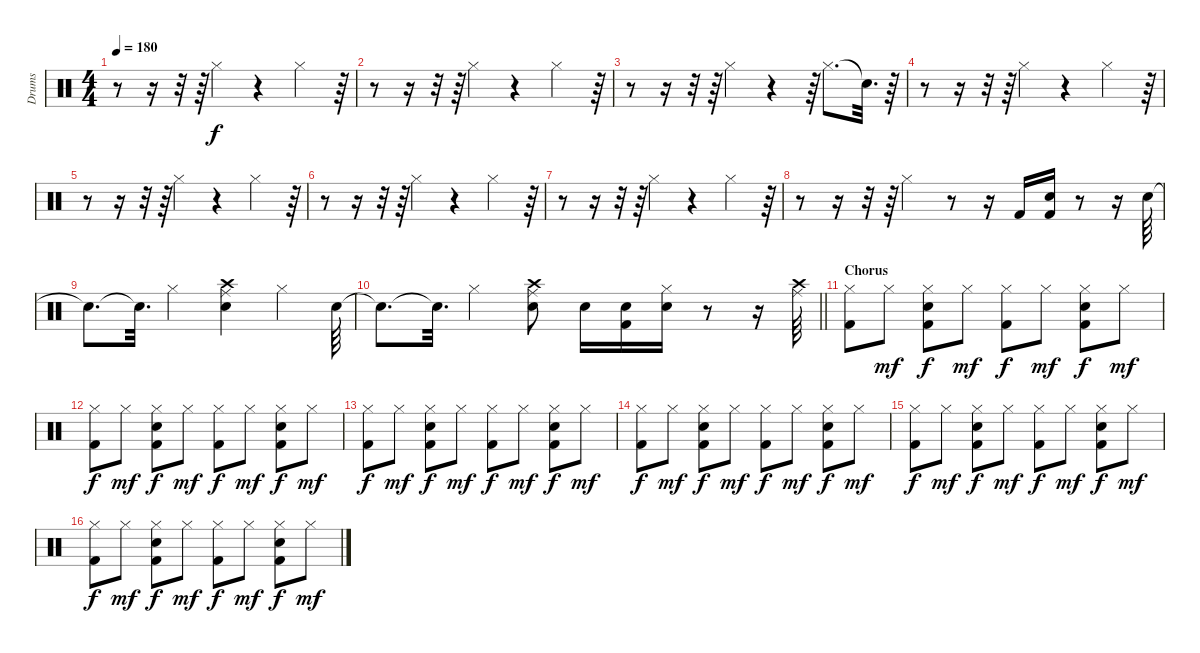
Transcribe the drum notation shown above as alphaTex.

\track ("Drums" "Drums") {instrument percussion}
\staff {score}
\articulation defaults
\ts (4 4)
\tempo 180
\clef neutral
\ks c
r.8{dy f} r.16 r.32 r.64 "Hi-Hat (closed)".4 r.4 "Hi-Hat (closed)".4 r.64 |
r.8 r.16 r.32 r.64 "Hi-Hat (closed)".4 r.4 "Hi-Hat (closed)".4 r.64 |
r.8 r.16 r.32 r.64 "Hi-Hat (closed)".4 r.4 r.64 "Hi-Hat (closed)".8{d} "Snare (hit)"{t}.32{d} r.64 |
r.8 r.16 r.32 r.64 "Hi-Hat (closed)".4 r.4 "Hi-Hat (closed)".4 r.64 |
r.8 r.16 r.32 r.64 "Hi-Hat (closed)".4 r.4 "Hi-Hat (closed)".4 r.64 |
r.8 r.16 r.32 r.64 "Hi-Hat (closed)".4 r.4 "Hi-Hat (closed)".4 r.64 |
r.8 r.16 r.32 r.64 "Hi-Hat (closed)".4 r.4 "Hi-Hat (closed)".4 r.64 |
r.8 r.16 r.32 r.64 "Hi-Hat (closed)".4 r.8 r.16 "Kick (hit) 2".16 ("Snare (hit) 2" "Kick (hit) 2").16 r.8 r.16 "Snare (hit) 2".64 |
"Snare (hit)"{t}.8{d} "Snare (hit)"{t}.32{d} "Hi-Hat (closed)".4 ("Ride (middle)" "Snare (hit) 2" "Crash high (hit)").4 "Hi-Hat (closed)".4 "Snare (hit) 2".64 |
\barLineRight lightlight "Snare (hit)"{t}.8{d} "Snare (hit)"{t}.32{d} "Hi-Hat (closed)".4
("Snare (hit) 2" "Ride (middle)" "Crash high (hit)").8 "Snare (hit) 2".16 ("Snare (hit) 2" "Kick (hit) 2").16 ("Hi-Hat (closed)" "Snare (hit) 2").16 r.8 r.16 ("Ride (middle)" "Crash high (hit)").64 |
\section ("" "Chorus")
("Hi-Hat (closed)" "Kick (hit) 2").8 "Hi-Hat (closed)".8{dy mf} ("Hi-Hat (closed)" "Electric Snare (hit)" "Kick (hit) 2").8{dy f} "Hi-Hat (closed)".8{dy mf} ("Hi-Hat (closed)" "Kick (hit) 2").8{dy f} "Hi-Hat (closed)".8{dy mf} ("Hi-Hat (closed)" "Electric Snare (hit)" "Kick (hit) 2").8{dy f} "Hi-Hat (closed)".8{dy mf} |
("Hi-Hat (closed)" "Kick (hit) 2").8{dy f} "Hi-Hat (closed)".8{dy mf} ("Hi-Hat (closed)" "Electric Snare (hit)" "Kick (hit) 2").8{dy f} "Hi-Hat (closed)".8{dy mf} ("Hi-Hat (closed)" "Kick (hit) 2").8{dy f} "Hi-Hat (closed)".8{dy mf} ("Hi-Hat (closed)" "Electric Snare (hit)" "Kick (hit) 2").8{dy f} "Hi-Hat (closed)".8{dy mf} |
("Hi-Hat (closed)" "Kick (hit) 2").8{dy f} "Hi-Hat (closed)".8{dy mf} ("Hi-Hat (closed)" "Electric Snare (hit)" "Kick (hit) 2").8{dy f} "Hi-Hat (closed)".8{dy mf} ("Hi-Hat (closed)" "Kick (hit) 2").8{dy f} "Hi-Hat (closed)".8{dy mf} ("Hi-Hat (closed)" "Electric Snare (hit)" "Kick (hit) 2").8{dy f} "Hi-Hat (closed)".8{dy mf} |
("Hi-Hat (closed)" "Kick (hit) 2").8{dy f} "Hi-Hat (closed)".8{dy mf} ("Hi-Hat (closed)" "Electric Snare (hit)" "Kick (hit) 2").8{dy f} "Hi-Hat (closed)".8{dy mf} ("Hi-Hat (closed)" "Kick (hit) 2").8{dy f} "Hi-Hat (closed)".8{dy mf} ("Hi-Hat (closed)" "Electric Snare (hit)" "Kick (hit) 2").8{dy f} "Hi-Hat (closed)".8{dy mf} |
("Hi-Hat (closed)" "Kick (hit) 2").8{dy f} "Hi-Hat (closed)".8{dy mf} ("Hi-Hat (closed)" "Electric Snare (hit)" "Kick (hit) 2").8{dy f} "Hi-Hat (closed)".8{dy mf} ("Hi-Hat (closed)" "Kick (hit) 2").8{dy f} "Hi-Hat (closed)".8{dy mf} ("Hi-Hat (closed)" "Electric Snare (hit)" "Kick (hit) 2").8{dy f} "Hi-Hat (closed)".8{dy mf} |
("Hi-Hat (closed)" "Kick (hit) 2").8{dy f} "Hi-Hat (closed)".8{dy mf} ("Hi-Hat (closed)" "Electric Snare (hit)" "Kick (hit) 2").8{dy f} "Hi-Hat (closed)".8{dy mf} ("Hi-Hat (closed)" "Kick (hit) 2").8{dy f} "Hi-Hat (closed)".8{dy mf} ("Hi-Hat (closed)" "Electric Snare (hit)" "Kick (hit) 2").8{dy f} "Hi-Hat (closed)".8{dy mf}
